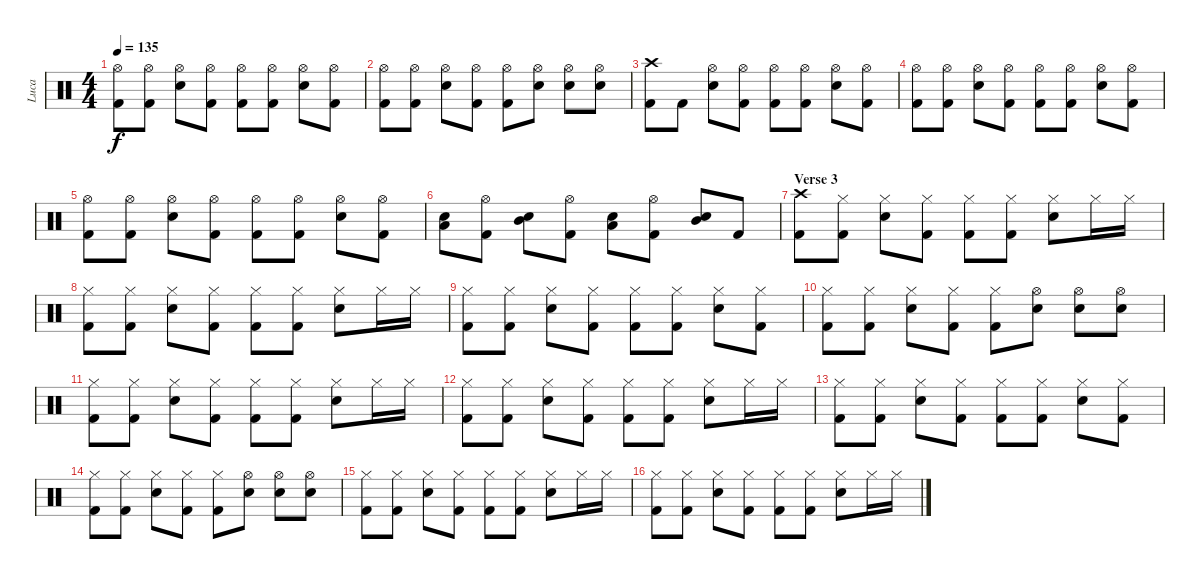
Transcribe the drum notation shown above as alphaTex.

\track ("Luca" "Luca") {instrument percussion}
\staff {score}
\articulation defaults
\ts (4 4)
\tempo 135
\clef neutral
\ks c
("Hi-Hat (open)" "Kick (hit) 2").8{dy f} ("Hi-Hat (open)" "Kick (hit) 2").8 ("Hi-Hat (open)" "Snare (hit) 2").8 ("Hi-Hat (open)" "Kick (hit) 2").8 ("Hi-Hat (open)" "Kick (hit) 2").8 ("Hi-Hat (open)" "Kick (hit) 2").8 ("Hi-Hat (open)" "Snare (hit) 2").8 ("Hi-Hat (open)" "Kick (hit) 2").8 |
("Hi-Hat (open)" "Kick (hit) 2").8 ("Hi-Hat (open)" "Kick (hit) 2").8 ("Hi-Hat (open)" "Snare (hit) 2").8 ("Hi-Hat (open)" "Kick (hit) 2").8 ("Hi-Hat (open)" "Kick (hit) 2").8 ("Hi-Hat (open)" "Snare (hit) 2").8 ("Hi-Hat (open)" "Snare (hit) 2").8 ("Hi-Hat (open)" "Snare (hit) 2").8 |
("Crash high (hit)" "Kick (hit) 2").8 "Kick (hit) 2".8 ("Hi-Hat (open)" "Snare (hit) 2").8 ("Hi-Hat (open)" "Kick (hit) 2").8 ("Hi-Hat (open)" "Kick (hit) 2").8 ("Hi-Hat (open)" "Kick (hit) 2").8 ("Hi-Hat (open)" "Snare (hit) 2").8 ("Hi-Hat (open)" "Kick (hit) 2").8 |
("Hi-Hat (open)" "Kick (hit) 2").8 ("Hi-Hat (open)" "Kick (hit) 2").8 ("Hi-Hat (open)" "Snare (hit) 2").8 ("Hi-Hat (open)" "Kick (hit) 2").8 ("Hi-Hat (open)" "Kick (hit) 2").8 ("Hi-Hat (open)" "Kick (hit) 2").8 ("Hi-Hat (open)" "Snare (hit) 2").8 ("Hi-Hat (open)" "Kick (hit) 2").8 |
("Hi-Hat (open)" "Kick (hit) 2").8 ("Hi-Hat (open)" "Kick (hit) 2").8 ("Hi-Hat (open)" "Snare (hit) 2").8 ("Hi-Hat (open)" "Kick (hit) 2").8 ("Hi-Hat (open)" "Kick (hit) 2").8 ("Hi-Hat (open)" "Kick (hit) 2").8 ("Hi-Hat (open)" "Snare (hit) 2").8 ("Hi-Hat (open)" "Kick (hit) 2").8 |
("Low Tom (hit)" "Snare (hit) 2").8 ("Hi-Hat (open)" "Kick (hit) 2").8 ("Mid Tom (hit)" "Snare (hit) 2").8 ("Hi-Hat (open)" "Kick (hit) 2").8 ("Low Tom (hit)" "Snare (hit) 2").8 ("Hi-Hat (open)" "Kick (hit) 2").8 ("Mid Tom (hit)" "Snare (hit) 2").8 "Kick (hit) 2".8 |
\section ("" "Verse 3")
("Crash high (hit)" "Kick (hit) 2").8 ("Hi-Hat (closed)" "Kick (hit) 2").8 ("Hi-Hat (closed)" "Snare (hit) 2").8 ("Hi-Hat (closed)" "Kick (hit) 2").8 ("Hi-Hat (closed)" "Kick (hit) 2").8 ("Hi-Hat (closed)" "Kick (hit) 2").8 ("Hi-Hat (closed)" "Snare (hit) 2").8 "Hi-Hat (closed)".16 "Hi-Hat (closed)".16 |
("Hi-Hat (closed)" "Kick (hit) 2").8 ("Hi-Hat (closed)" "Kick (hit) 2").8 ("Hi-Hat (closed)" "Snare (hit) 2").8 ("Hi-Hat (closed)" "Kick (hit) 2").8 ("Hi-Hat (closed)" "Kick (hit) 2").8 ("Hi-Hat (closed)" "Kick (hit) 2").8 ("Hi-Hat (closed)" "Snare (hit) 2").8 "Hi-Hat (closed)".16 "Hi-Hat (closed)".16 |
("Hi-Hat (closed)" "Kick (hit) 2").8 ("Hi-Hat (closed)" "Kick (hit) 2").8 ("Hi-Hat (closed)" "Snare (hit) 2").8 ("Hi-Hat (closed)" "Kick (hit) 2").8 ("Hi-Hat (closed)" "Kick (hit) 2").8 ("Hi-Hat (closed)" "Kick (hit) 2").8 ("Hi-Hat (closed)" "Snare (hit) 2").8 ("Hi-Hat (closed)" "Kick (hit) 2").8 |
("Hi-Hat (closed)" "Kick (hit) 2").8 ("Hi-Hat (closed)" "Kick (hit) 2").8 ("Hi-Hat (closed)" "Snare (hit) 2").8 ("Hi-Hat (closed)" "Kick (hit) 2").8 ("Hi-Hat (closed)" "Kick (hit) 2").8 ("Hi-Hat (open)" "Snare (hit) 2").8 ("Hi-Hat (open)" "Snare (hit) 2").8 ("Hi-Hat (open)" "Snare (hit) 2").8 |
("Hi-Hat (closed)" "Kick (hit) 2").8 ("Hi-Hat (closed)" "Kick (hit) 2").8 ("Hi-Hat (closed)" "Snare (hit) 2").8 ("Hi-Hat (closed)" "Kick (hit) 2").8 ("Hi-Hat (closed)" "Kick (hit) 2").8 ("Hi-Hat (closed)" "Kick (hit) 2").8 ("Hi-Hat (closed)" "Snare (hit) 2").8 "Hi-Hat (closed)".16 "Hi-Hat (closed)".16 |
("Hi-Hat (closed)" "Kick (hit) 2").8 ("Hi-Hat (closed)" "Kick (hit) 2").8 ("Hi-Hat (closed)" "Snare (hit) 2").8 ("Hi-Hat (closed)" "Kick (hit) 2").8 ("Hi-Hat (closed)" "Kick (hit) 2").8 ("Hi-Hat (closed)" "Kick (hit) 2").8 ("Hi-Hat (closed)" "Snare (hit) 2").8 "Hi-Hat (closed)".16 "Hi-Hat (closed)".16 |
("Hi-Hat (closed)" "Kick (hit) 2").8 ("Hi-Hat (closed)" "Kick (hit) 2").8 ("Hi-Hat (closed)" "Snare (hit) 2").8 ("Hi-Hat (closed)" "Kick (hit) 2").8 ("Hi-Hat (closed)" "Kick (hit) 2").8 ("Hi-Hat (closed)" "Kick (hit) 2").8 ("Hi-Hat (closed)" "Snare (hit) 2").8 ("Hi-Hat (closed)" "Kick (hit) 2").8 |
("Hi-Hat (closed)" "Kick (hit) 2").8 ("Hi-Hat (closed)" "Kick (hit) 2").8 ("Hi-Hat (closed)" "Snare (hit) 2").8 ("Hi-Hat (closed)" "Kick (hit) 2").8 ("Hi-Hat (closed)" "Kick (hit) 2").8 ("Hi-Hat (open)" "Snare (hit) 2").8 ("Hi-Hat (open)" "Snare (hit) 2").8 ("Hi-Hat (open)" "Snare (hit) 2").8 |
("Hi-Hat (closed)" "Kick (hit) 2").8 ("Hi-Hat (closed)" "Kick (hit) 2").8 ("Hi-Hat (closed)" "Snare (hit) 2").8 ("Hi-Hat (closed)" "Kick (hit) 2").8 ("Hi-Hat (closed)" "Kick (hit) 2").8 ("Hi-Hat (closed)" "Kick (hit) 2").8 ("Hi-Hat (closed)" "Snare (hit) 2").8 "Hi-Hat (closed)".16 "Hi-Hat (closed)".16 |
("Hi-Hat (closed)" "Kick (hit) 2").8 ("Hi-Hat (closed)" "Kick (hit) 2").8 ("Hi-Hat (closed)" "Snare (hit) 2").8 ("Hi-Hat (closed)" "Kick (hit) 2").8 ("Hi-Hat (closed)" "Kick (hit) 2").8 ("Hi-Hat (closed)" "Kick (hit) 2").8 ("Hi-Hat (closed)" "Snare (hit) 2").8 "Hi-Hat (closed)".16 "Hi-Hat (closed)".16
